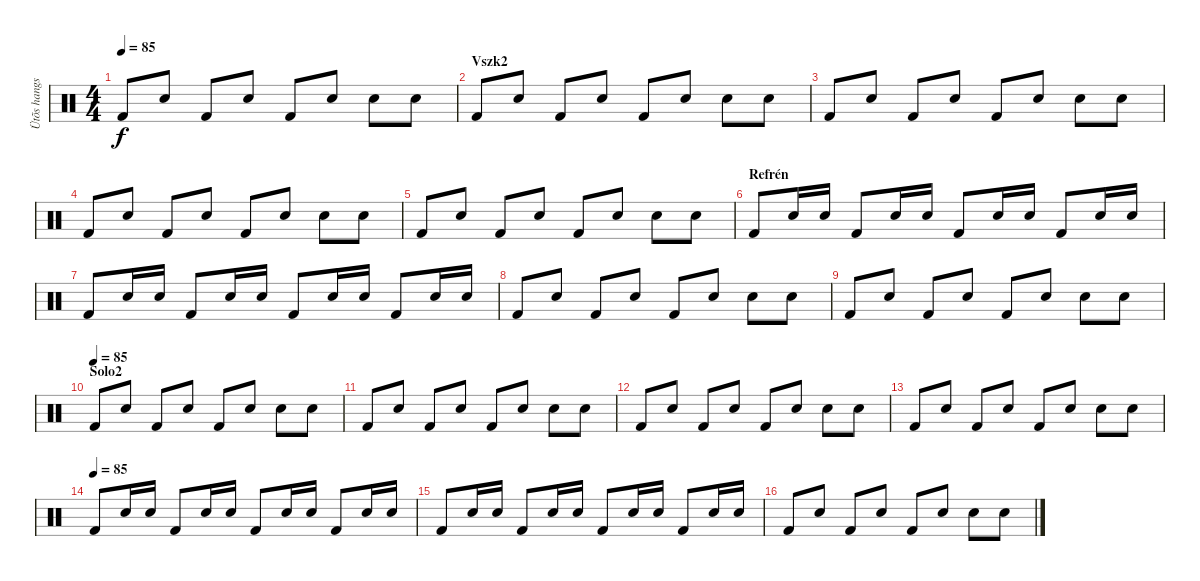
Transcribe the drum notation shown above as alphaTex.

\track ("Ütõs hangszer" "Ütõs hangs") {instrument percussion}
\staff {score}
\articulation defaults
\ts (4 4)
\tempo 85
\clef neutral
\ks c "Kick (hit) 2".8{dy f} "Electric Snare (hit)".8 "Kick (hit) 2".8 "Electric Snare (hit)".8 "Kick (hit) 2".8 "Electric Snare (hit)".8 "Electric Snare (hit)".8 "Electric Snare (hit)".8
|
\section ("" "Vszk2")
"Kick (hit) 2".8 "Electric Snare (hit)".8 "Kick (hit) 2".8 "Electric Snare (hit)".8 "Kick (hit) 2".8 "Electric Snare (hit)".8 "Electric Snare (hit)".8 "Electric Snare (hit)".8 |
"Kick (hit) 2".8 "Electric Snare (hit)".8 "Kick (hit) 2".8 "Electric Snare (hit)".8 "Kick (hit) 2".8 "Electric Snare (hit)".8 "Electric Snare (hit)".8 "Electric Snare (hit)".8 |
"Kick (hit) 2".8 "Electric Snare (hit)".8 "Kick (hit) 2".8 "Electric Snare (hit)".8 "Kick (hit) 2".8 "Electric Snare (hit)".8 "Electric Snare (hit)".8 "Electric Snare (hit)".8 |
"Kick (hit) 2".8 "Electric Snare (hit)".8 "Kick (hit) 2".8 "Electric Snare (hit)".8 "Kick (hit) 2".8 "Electric Snare (hit)".8 "Electric Snare (hit)".8 "Electric Snare (hit)".8 |
\section ("" "Refrén")
"Kick (hit) 2".8 "Electric Snare (hit)".16 "Electric Snare (hit)".16 "Kick (hit) 2".8 "Electric Snare (hit)".16 "Electric Snare (hit)".16 "Kick (hit) 2".8 "Electric Snare (hit)".16 "Electric Snare (hit)".16 "Kick (hit) 2".8 "Electric Snare (hit)".16 "Electric Snare (hit)".16 |
"Kick (hit) 2".8 "Electric Snare (hit)".16 "Electric Snare (hit)".16 "Kick (hit) 2".8 "Electric Snare (hit)".16 "Electric Snare (hit)".16 "Kick (hit) 2".8 "Electric Snare (hit)".16 "Electric Snare (hit)".16 "Kick (hit) 2".8 "Electric Snare (hit)".16 "Electric Snare (hit)".16 |
"Kick (hit) 2".8 "Electric Snare (hit)".8 "Kick (hit) 2".8 "Electric Snare (hit)".8 "Kick (hit) 2".8 "Electric Snare (hit)".8 "Electric Snare (hit)".8 "Electric Snare (hit)".8 |
"Kick (hit) 2".8 "Electric Snare (hit)".8 "Kick (hit) 2".8 "Electric Snare (hit)".8 "Kick (hit) 2".8 "Electric Snare (hit)".8 "Electric Snare (hit)".8 "Electric Snare (hit)".8 |
\section ("" "Solo2")
\tempo (85)
"Kick (hit) 2".8 "Electric Snare (hit)".8 "Kick (hit) 2".8 "Electric Snare (hit)".8 "Kick (hit) 2".8 "Electric Snare (hit)".8 "Electric Snare (hit)".8 "Electric Snare (hit)".8 |
"Kick (hit) 2".8 "Electric Snare (hit)".8 "Kick (hit) 2".8 "Electric Snare (hit)".8 "Kick (hit) 2".8 "Electric Snare (hit)".8 "Electric Snare (hit)".8 "Electric Snare (hit)".8 |
"Kick (hit) 2".8 "Electric Snare (hit)".8 "Kick (hit) 2".8 "Electric Snare (hit)".8 "Kick (hit) 2".8 "Electric Snare (hit)".8 "Electric Snare (hit)".8 "Electric Snare (hit)".8 |
"Kick (hit) 2".8 "Electric Snare (hit)".8 "Kick (hit) 2".8 "Electric Snare (hit)".8 "Kick (hit) 2".8 "Electric Snare (hit)".8 "Electric Snare (hit)".8 "Electric Snare (hit)".8 |
\tempo (85)
"Kick (hit) 2".8 "Electric Snare (hit)".16 "Electric Snare (hit)".16 "Kick (hit) 2".8 "Electric Snare (hit)".16 "Electric Snare (hit)".16 "Kick (hit) 2".8 "Electric Snare (hit)".16 "Electric Snare (hit)".16 "Kick (hit) 2".8 "Electric Snare (hit)".16 "Electric Snare (hit)".16 |
"Kick (hit) 2".8 "Electric Snare (hit)".16 "Electric Snare (hit)".16 "Kick (hit) 2".8 "Electric Snare (hit)".16 "Electric Snare (hit)".16 "Kick (hit) 2".8 "Electric Snare (hit)".16 "Electric Snare (hit)".16 "Kick (hit) 2".8 "Electric Snare (hit)".16 "Electric Snare (hit)".16 |
"Kick (hit) 2".8 "Electric Snare (hit)".8 "Kick (hit) 2".8 "Electric Snare (hit)".8 "Kick (hit) 2".8 "Electric Snare (hit)".8 "Electric Snare (hit)".8 "Electric Snare (hit)".8
